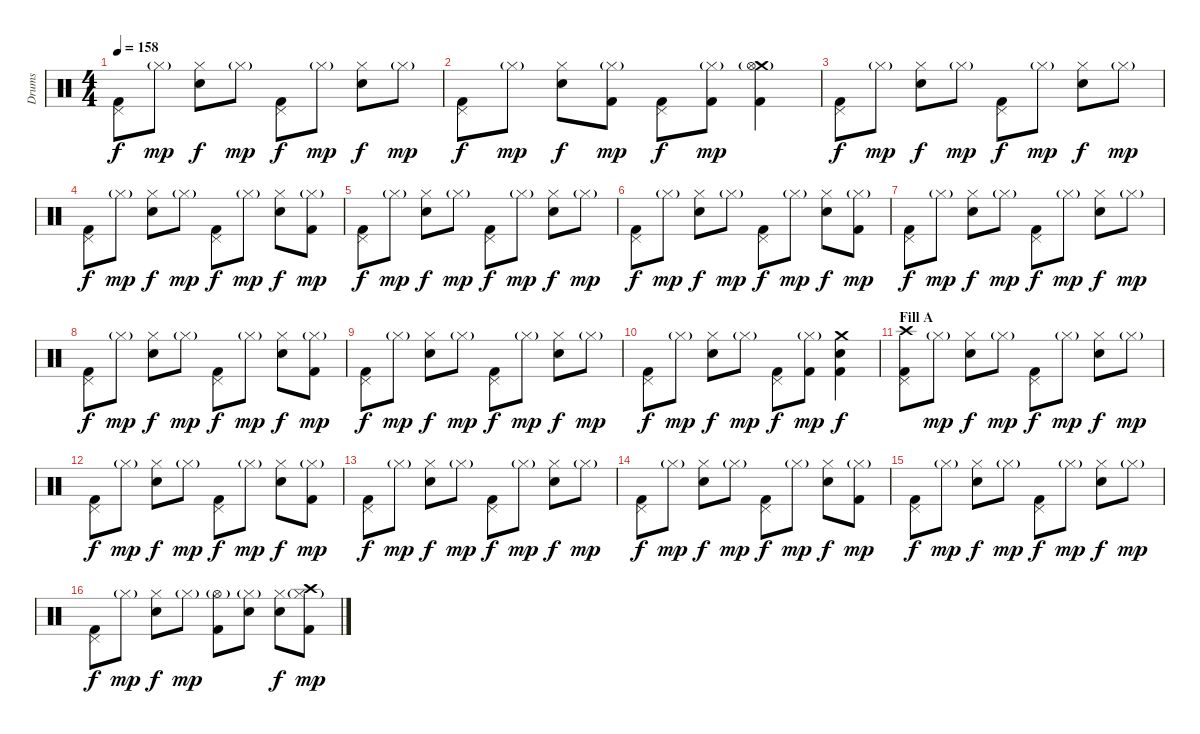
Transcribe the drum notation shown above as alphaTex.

\track ("Drums" "Drums") {instrument percussion}
\staff {score}
\articulation defaults
\ts (4 4)
\tempo 158
\clef neutral
\ks c
("Pedal Hi-Hat (hit)" "Kick (hit) 2").8{dy f} "Hi-Hat (closed)"{g}.8{dy mp} ("Hi-Hat (closed)" "Snare (hit) 2").8{dy f} "Hi-Hat (closed)"{g}.8{dy mp} ("Pedal Hi-Hat (hit)" "Kick (hit) 2").8{dy f} "Hi-Hat (closed)"{g}.8{dy mp} ("Hi-Hat (closed)" "Snare (hit) 2").8{dy f} "Hi-Hat (closed)"{g}.8{dy mp} |
("Pedal Hi-Hat (hit)" "Kick (hit) 2").8{dy f} "Hi-Hat (closed)"{g}.8{dy mp} ("Hi-Hat (closed)" "Snare (hit) 2").8{dy f} ("Hi-Hat (closed)"{g} "Kick (hit) 2").8{dy mp} ("Pedal Hi-Hat (hit)" "Kick (hit) 2").8{dy f} ("Hi-Hat (closed)"{g} "Kick (hit) 2").8{dy mp} ("Crash medium (hit)" "Hi-Hat (open)"{g} "Kick (hit) 2").4 |
("Pedal Hi-Hat (hit)" "Kick (hit) 2").8{dy f} "Hi-Hat (closed)"{g}.8{dy mp} ("Hi-Hat (closed)" "Snare (hit) 2").8{dy f} "Hi-Hat (closed)"{g}.8{dy mp} ("Pedal Hi-Hat (hit)" "Kick (hit) 2").8{dy f} "Hi-Hat (closed)"{g}.8{dy mp} ("Hi-Hat (closed)" "Snare (hit) 2").8{dy f} "Hi-Hat (closed)"{g}.8{dy mp} |
("Pedal Hi-Hat (hit)" "Kick (hit) 2").8{dy f} "Hi-Hat (closed)"{g}.8{dy mp} ("Hi-Hat (closed)" "Snare (hit) 2").8{dy f} "Hi-Hat (closed)"{g}.8{dy mp} ("Pedal Hi-Hat (hit)" "Kick (hit) 2").8{dy f} "Hi-Hat (closed)"{g}.8{dy mp} ("Hi-Hat (closed)" "Snare (hit) 2").8{dy f} ("Hi-Hat (closed)"{g} "Kick (hit) 2").8{dy mp} |
("Pedal Hi-Hat (hit)" "Kick (hit) 2").8{dy f} "Hi-Hat (closed)"{g}.8{dy mp} ("Hi-Hat (closed)" "Snare (hit) 2").8{dy f} "Hi-Hat (closed)"{g}.8{dy mp} ("Pedal Hi-Hat (hit)" "Kick (hit) 2").8{dy f} "Hi-Hat (closed)"{g}.8{dy mp} ("Hi-Hat (closed)" "Snare (hit) 2").8{dy f} "Hi-Hat (closed)"{g}.8{dy mp} |
("Pedal Hi-Hat (hit)" "Kick (hit) 2").8{dy f} "Hi-Hat (closed)"{g}.8{dy mp} ("Hi-Hat (closed)" "Snare (hit) 2").8{dy f} "Hi-Hat (closed)"{g}.8{dy mp} ("Pedal Hi-Hat (hit)" "Kick (hit) 2").8{dy f} "Hi-Hat (closed)"{g}.8{dy mp} ("Hi-Hat (closed)" "Snare (hit) 2").8{dy f} ("Hi-Hat (closed)"{g} "Kick (hit) 2").8{dy mp} |
("Pedal Hi-Hat (hit)" "Kick (hit) 2").8{dy f} "Hi-Hat (closed)"{g}.8{dy mp} ("Hi-Hat (closed)" "Snare (hit) 2").8{dy f} "Hi-Hat (closed)"{g}.8{dy mp} ("Pedal Hi-Hat (hit)" "Kick (hit) 2").8{dy f} "Hi-Hat (closed)"{g}.8{dy mp} ("Hi-Hat (closed)" "Snare (hit) 2").8{dy f} "Hi-Hat (closed)"{g}.8{dy mp} |
("Pedal Hi-Hat (hit)" "Kick (hit) 2").8{dy f} "Hi-Hat (closed)"{g}.8{dy mp} ("Hi-Hat (closed)" "Snare (hit) 2").8{dy f} "Hi-Hat (closed)"{g}.8{dy mp} ("Pedal Hi-Hat (hit)" "Kick (hit) 2").8{dy f} "Hi-Hat (closed)"{g}.8{dy mp} ("Hi-Hat (closed)" "Snare (hit) 2").8{dy f} ("Hi-Hat (closed)"{g} "Kick (hit) 2").8{dy mp} |
("Pedal Hi-Hat (hit)" "Kick (hit) 2").8{dy f} "Hi-Hat (closed)"{g}.8{dy mp} ("Hi-Hat (closed)" "Snare (hit) 2").8{dy f} "Hi-Hat (closed)"{g}.8{dy mp} ("Pedal Hi-Hat (hit)" "Kick (hit) 2").8{dy f} "Hi-Hat (closed)"{g}.8{dy mp} ("Hi-Hat (closed)" "Snare (hit) 2").8{dy f} "Hi-Hat (closed)"{g}.8{dy mp} |
("Pedal Hi-Hat (hit)" "Kick (hit) 2").8{dy f} "Hi-Hat (closed)"{g}.8{dy mp} ("Hi-Hat (closed)" "Snare (hit) 2").8{dy f} "Hi-Hat (closed)"{g}.8{dy mp} ("Pedal Hi-Hat (hit)" "Kick (hit) 2").8{dy f} ("Hi-Hat (closed)"{g} "Kick (hit) 2").8{dy mp} ("Crash medium (hit)" "Snare (hit) 2" "Kick (hit) 2").4{dy f} |
\section ("" "Fill A")
("Crash high (hit)" "Pedal Hi-Hat (hit)" "Kick (hit) 2").8 "Hi-Hat (closed)"{g}.8{dy mp} ("Hi-Hat (closed)" "Snare (hit) 2").8{dy f} "Hi-Hat (closed)"{g}.8{dy mp} ("Pedal Hi-Hat (hit)" "Kick (hit) 2").8{dy f} "Hi-Hat (closed)"{g}.8{dy mp} ("Hi-Hat (closed)" "Snare (hit) 2").8{dy f} "Hi-Hat (closed)"{g}.8{dy mp} |
("Pedal Hi-Hat (hit)" "Kick (hit) 2").8{dy f} "Hi-Hat (closed)"{g}.8{dy mp} ("Hi-Hat (closed)" "Snare (hit) 2").8{dy f} "Hi-Hat (closed)"{g}.8{dy mp} ("Pedal Hi-Hat (hit)" "Kick (hit) 2").8{dy f} "Hi-Hat (closed)"{g}.8{dy mp} ("Hi-Hat (closed)" "Snare (hit) 2").8{dy f} ("Hi-Hat (closed)"{g} "Kick (hit) 2").8{dy mp} |
("Pedal Hi-Hat (hit)" "Kick (hit) 2").8{dy f} "Hi-Hat (closed)"{g}.8{dy mp} ("Hi-Hat (closed)" "Snare (hit) 2").8{dy f} "Hi-Hat (closed)"{g}.8{dy mp} ("Pedal Hi-Hat (hit)" "Kick (hit) 2").8{dy f} "Hi-Hat (closed)"{g}.8{dy mp} ("Hi-Hat (closed)" "Snare (hit) 2").8{dy f} "Hi-Hat (closed)"{g}.8{dy mp} |
("Pedal Hi-Hat (hit)" "Kick (hit) 2").8{dy f} "Hi-Hat (closed)"{g}.8{dy mp} ("Hi-Hat (closed)" "Snare (hit) 2").8{dy f} "Hi-Hat (closed)"{g}.8{dy mp} ("Pedal Hi-Hat (hit)" "Kick (hit) 2").8{dy f} "Hi-Hat (closed)"{g}.8{dy mp} ("Hi-Hat (closed)" "Snare (hit) 2").8{dy f} ("Hi-Hat (closed)"{g} "Kick (hit) 2").8{dy mp} |
("Pedal Hi-Hat (hit)" "Kick (hit) 2").8{dy f} "Hi-Hat (closed)"{g}.8{dy mp} ("Hi-Hat (closed)" "Snare (hit) 2").8{dy f} "Hi-Hat (closed)"{g}.8{dy mp} ("Pedal Hi-Hat (hit)" "Kick (hit) 2").8{dy f} "Hi-Hat (closed)"{g}.8{dy mp} ("Hi-Hat (closed)" "Snare (hit) 2").8{dy f} "Hi-Hat (closed)"{g}.8{dy mp} |
("Pedal Hi-Hat (hit)" "Kick (hit) 2").8{dy f} "Hi-Hat (closed)"{g}.8{dy mp} ("Hi-Hat (closed)" "Snare (hit) 2").8{dy f} "Hi-Hat (closed)"{g}.8{dy mp} ("Hi-Hat (open)"{g} "Kick (hit) 2").8 ("Hi-Hat (closed)"{g} "Snare (hit) 2").8 ("Hi-Hat (closed)" "Snare (hit) 2").8{dy f} ("Crash high (hit)" "Hi-Hat (closed)"{g} "Kick (hit) 2").8{dy mp}
